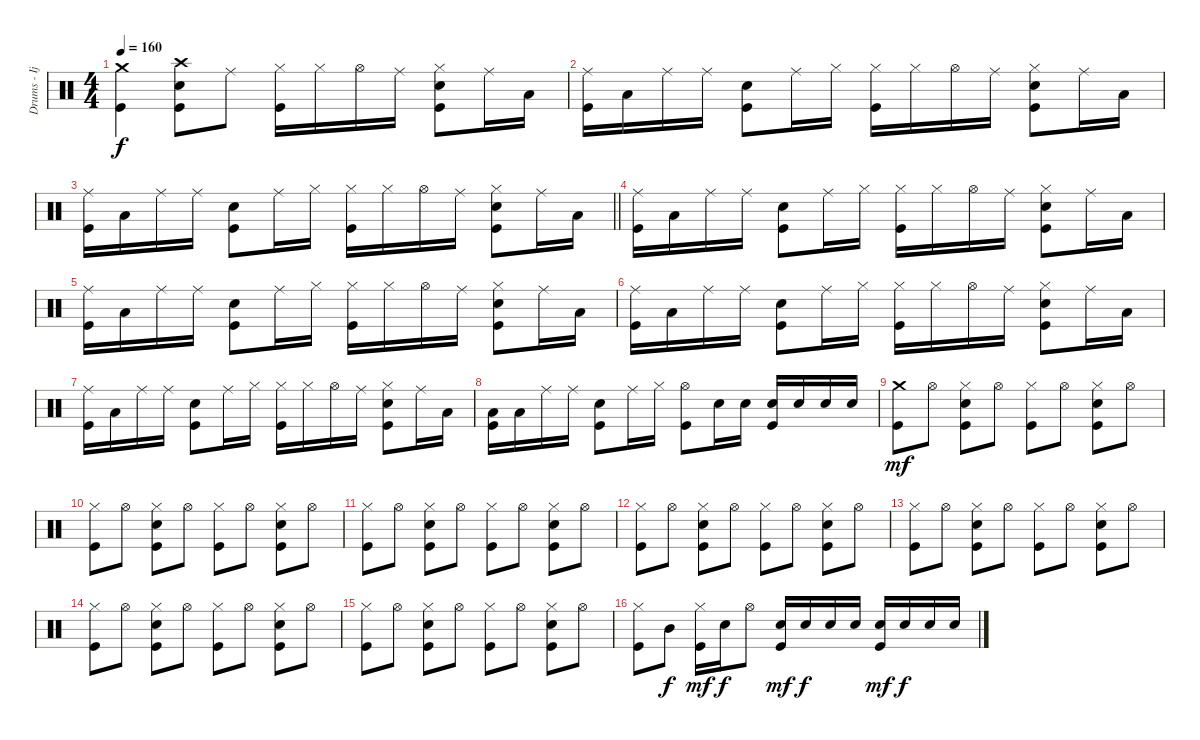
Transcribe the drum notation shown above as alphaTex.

\track ("Drums - Ijichi" "Drums - Ij") {instrument percussion}
\staff {score}
\articulation defaults
\ts (4 4)
\tempo 160
\clef neutral
\ks c
("Crash medium (hit)" "Kick (hit)").4{dy f} ("Crash high (hit)" "Electric Snare (hit)" "Kick (hit)").8 "Ride (middle)".8 ("Hi-Hat (closed)" "Kick (hit)").16 "Hi-Hat (closed)".16 "Hi-Hat (open)".16 "Ride (middle)".16 ("Hi-Hat (closed)" "Electric Snare (hit)" "Kick (hit)").8 "Ride (middle)".16 "Low Tom (hit)".16 |
("Ride (middle)" "Kick (hit)").16 "Low Tom (hit)".16 "Ride (middle)".16 "Ride (middle)".16 ("Electric Snare (hit)" "Kick (hit)").8 "Ride (middle)".16 "Hi-Hat (closed)".16 ("Hi-Hat (closed)" "Kick (hit)").16 "Hi-Hat (closed)".16 "Hi-Hat (open)".16 "Ride (middle)".16 ("Hi-Hat (closed)" "Electric Snare (hit)" "Kick (hit)").8 "Ride (middle)".16 "Low Tom (hit)".16 |
\barLineRight lightlight
("Ride (middle)" "Kick (hit)").16 "Low Tom (hit)".16 "Ride (middle)".16 "Ride (middle)".16 ("Electric Snare (hit)" "Kick (hit)").8 "Ride (middle)".16 "Hi-Hat (closed)".16 ("Hi-Hat (closed)" "Kick (hit)").16 "Hi-Hat (closed)".16 "Hi-Hat (open)".16 "Ride (middle)".16 ("Hi-Hat (closed)" "Electric Snare (hit)" "Kick (hit)").8 "Ride (middle)".16 "Low Tom (hit)".16 |
("Ride (middle)" "Kick (hit)").16 "Low Tom (hit)".16 "Ride (middle)".16 "Ride (middle)".16 ("Electric Snare (hit)" "Kick (hit)").8 "Ride (middle)".16 "Hi-Hat (closed)".16 ("Hi-Hat (closed)" "Kick (hit)").16 "Hi-Hat (closed)".16 "Hi-Hat (open)".16 "Ride (middle)".16 ("Hi-Hat (closed)" "Electric Snare (hit)" "Kick (hit)").8 "Ride (middle)".16 "Low Tom (hit)".16 |
("Ride (middle)" "Kick (hit)").16 "Low Tom (hit)".16 "Ride (middle)".16 "Ride (middle)".16 ("Electric Snare (hit)" "Kick (hit)").8 "Ride (middle)".16 "Hi-Hat (closed)".16 ("Hi-Hat (closed)" "Kick (hit)").16 "Hi-Hat (closed)".16 "Hi-Hat (open)".16 "Ride (middle)".16 ("Hi-Hat (closed)" "Electric Snare (hit)" "Kick (hit)").8 "Ride (middle)".16 "Low Tom (hit)".16 |
("Ride (middle)" "Kick (hit)").16 "Low Tom (hit)".16 "Ride (middle)".16 "Ride (middle)".16 ("Electric Snare (hit)" "Kick (hit)").8 "Ride (middle)".16 "Hi-Hat (closed)".16 ("Hi-Hat (closed)" "Kick (hit)").16 "Hi-Hat (closed)".16 "Hi-Hat (open)".16 "Ride (middle)".16 ("Hi-Hat (closed)" "Electric Snare (hit)" "Kick (hit)").8 "Ride (middle)".16 "Low Tom (hit)".16 |
("Ride (middle)" "Kick (hit)").16 "Low Tom (hit)".16 "Ride (middle)".16 "Ride (middle)".16 ("Electric Snare (hit)" "Kick (hit)").8 "Ride (middle)".16 "Hi-Hat (closed)".16 ("Hi-Hat (closed)" "Kick (hit)").16 "Hi-Hat (closed)".16 "Hi-Hat (open)".16 "Ride (middle)".16 ("Hi-Hat (closed)" "Electric Snare (hit)" "Kick (hit)").8 "Ride (middle)".16 "Low Tom (hit)".16 |
("Low Tom (hit)" "Kick (hit)").16 "Low Tom (hit)".16 "Ride (middle)".16 "Ride (middle)".16 ("Electric Snare (hit)" "Kick (hit)").8 "Ride (middle)".16 "Hi-Hat (closed)".16 ("Hi-Hat (open)" "Kick (hit)").8 "Electric Snare (hit)".16 "Electric Snare (hit)".16 ("Electric Snare (hit)" "Kick (hit)").16 "Electric Snare (hit)".16 "Electric Snare (hit)".16 "Electric Snare (hit)".16 |
("Crash medium (hit)" "Kick (hit)").8{dy mf} "Hi-Hat (open)".8 ("Hi-Hat (closed)" "Electric Snare (hit)" "Kick (hit)").8 "Hi-Hat (open)".8 ("Hi-Hat (closed)" "Kick (hit)").8 "Hi-Hat (open)".8 ("Hi-Hat (closed)" "Electric Snare (hit)" "Kick (hit)").8 "Hi-Hat (open)".8 |
("Hi-Hat (closed)" "Kick (hit)").8 "Hi-Hat (open)".8 ("Hi-Hat (closed)" "Electric Snare (hit)" "Kick (hit)").8 "Hi-Hat (open)".8 ("Hi-Hat (closed)" "Kick (hit)").8 "Hi-Hat (open)".8 ("Hi-Hat (closed)" "Electric Snare (hit)" "Kick (hit)").8 "Hi-Hat (open)".8 |
("Hi-Hat (closed)" "Kick (hit)").8 "Hi-Hat (open)".8 ("Hi-Hat (closed)" "Electric Snare (hit)" "Kick (hit)").8 "Hi-Hat (open)".8 ("Hi-Hat (closed)" "Kick (hit)").8 "Hi-Hat (open)".8 ("Hi-Hat (closed)" "Electric Snare (hit)" "Kick (hit)").8 "Hi-Hat (open)".8 |
("Hi-Hat (closed)" "Kick (hit)").8 "Hi-Hat (open)".8 ("Hi-Hat (closed)" "Electric Snare (hit)" "Kick (hit)").8 "Hi-Hat (open)".8 ("Hi-Hat (closed)" "Kick (hit)").8 "Hi-Hat (open)".8 ("Hi-Hat (closed)" "Electric Snare (hit)" "Kick (hit)").8 "Hi-Hat (open)".8 |
("Hi-Hat (closed)" "Kick (hit)").8 "Hi-Hat (open)".8 ("Hi-Hat (closed)" "Electric Snare (hit)" "Kick (hit)").8 "Hi-Hat (open)".8 ("Hi-Hat (closed)" "Kick (hit)").8 "Hi-Hat (open)".8 ("Hi-Hat (closed)" "Electric Snare (hit)" "Kick (hit)").8 "Hi-Hat (open)".8 |
("Hi-Hat (closed)" "Kick (hit)").8 "Hi-Hat (open)".8 ("Hi-Hat (closed)" "Electric Snare (hit)" "Kick (hit)").8 "Hi-Hat (open)".8 ("Hi-Hat (closed)" "Kick (hit)").8 "Hi-Hat (open)".8 ("Hi-Hat (closed)" "Electric Snare (hit)" "Kick (hit)").8 "Hi-Hat (open)".8 |
("Hi-Hat (closed)" "Kick (hit)").8 "Hi-Hat (open)".8 ("Hi-Hat (closed)" "Electric Snare (hit)" "Kick (hit)").8 "Hi-Hat (open)".8 ("Hi-Hat (closed)" "Kick (hit)").8 "Hi-Hat (open)".8 ("Hi-Hat (closed)" "Electric Snare (hit)" "Kick (hit)").8 "Hi-Hat (open)".8 |
("Hi-Hat (closed)" "Kick (hit)").8 "Mid Tom (hit)".8{dy f} ("Hi-Hat (closed)" "Kick (hit)").16{dy mf} "Electric Snare (hit)".16{dy f} "Hi-Hat (open)".8 ("Electric Snare (hit)" "Kick (hit)").16{dy mf} "Electric Snare (hit)".16{dy f} "Electric Snare (hit)".16 "Electric Snare (hit)".16 ("Electric Snare (hit)" "Kick (hit)").16{dy mf} "Electric Snare (hit)".16{dy f} "Electric Snare (hit)".16 "Electric Snare (hit)".16
